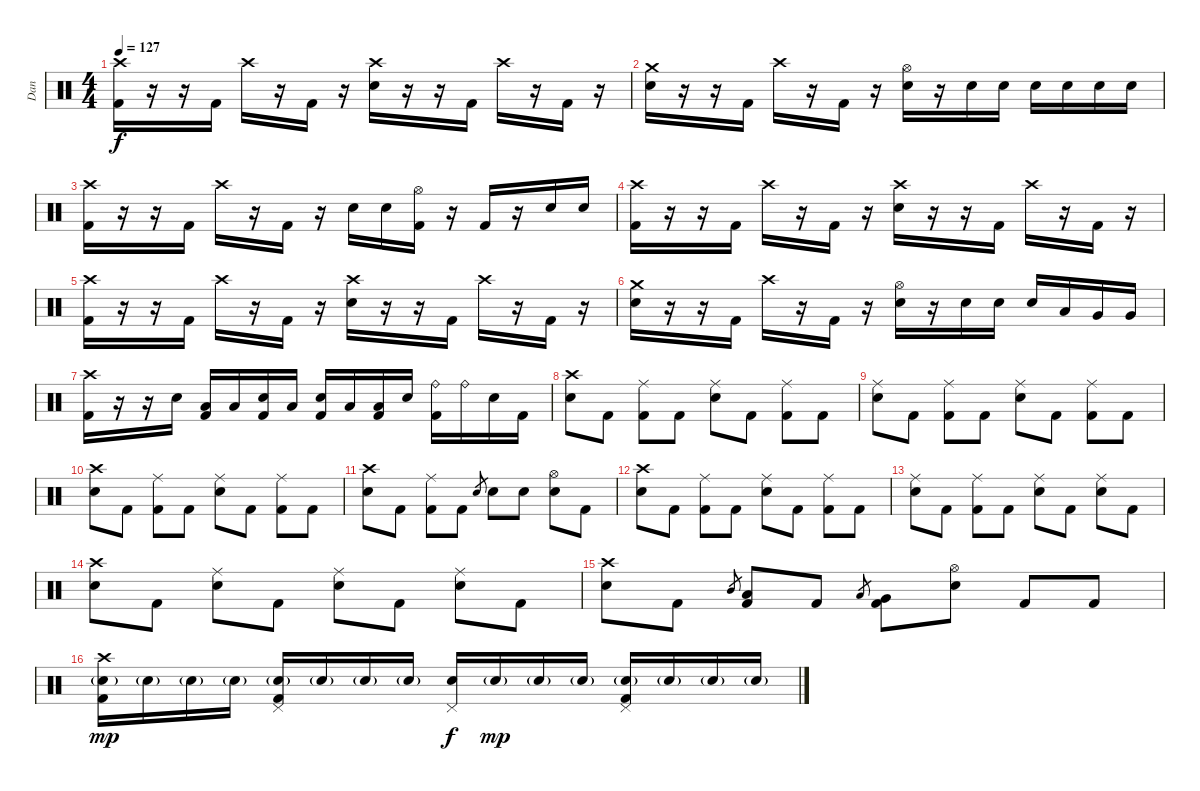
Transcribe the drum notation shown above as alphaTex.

\track ("Dan" "Dan") {instrument percussion}
\staff {score}
\articulation defaults
\ts (4 4)
\tempo 127
\clef neutral
\ks c
("Crash high (hit)" "Kick (hit) 2").16{dy f} r.16 r.16 "Kick (hit) 2".16 "Crash high (hit)".16 r.16 "Kick (hit) 2".16 r.16 ("Crash high (hit)" "Electric Snare (hit)").16 r.16 r.16 "Kick (hit) 2".16 "Crash high (hit)".16 r.16 "Kick (hit) 2".16 r.16 |
("Crash medium (hit)" "Electric Snare (hit)").16 r.16 r.16 "Kick (hit) 2".16 "Crash high (hit)".16 r.16 "Kick (hit) 2".16 r.16 ("Hi-Hat (open)" "Electric Snare (hit)").16 r.16 "Electric Snare (hit)".16 "Electric Snare (hit)".16 "Electric Snare (hit)".16 "Electric Snare (hit)".16 "Electric Snare (hit)".16 "Electric Snare (hit)".16 |
("Crash high (hit)" "Kick (hit) 2").16 r.16 r.16 "Kick (hit) 2".16 "Crash high (hit)".16 r.16 "Kick (hit) 2".16 r.16 "Electric Snare (hit)".16 "Electric Snare (hit)".16 ("Hi-Hat (open)" "Kick (hit) 2").16 r.16 "Kick (hit) 2".16 r.16 "Electric Snare (hit)".16 "Electric Snare (hit)".16 |
("Crash high (hit)" "Kick (hit) 2").16 r.16 r.16 "Kick (hit) 2".16 "Crash high (hit)".16 r.16 "Kick (hit) 2".16 r.16 ("Crash high (hit)" "Electric Snare (hit)").16 r.16 r.16 "Kick (hit) 2".16 "Crash high (hit)".16 r.16 "Kick (hit) 2".16 r.16 |
("Crash high (hit)" "Kick (hit) 2").16 r.16 r.16 "Kick (hit) 2".16 "Crash high (hit)".16 r.16 "Kick (hit) 2".16 r.16 ("Crash high (hit)" "Electric Snare (hit)").16 r.16 r.16 "Kick (hit) 2".16 "Crash high (hit)".16 r.16 "Kick (hit) 2".16 r.16 |
("Crash medium (hit)" "Electric Snare (hit)").16 r.16 r.16 "Kick (hit) 2".16 "Crash high (hit)".16 r.16 "Kick (hit) 2".16 r.16 ("Hi-Hat (open)" "Electric Snare (hit)").16 r.16 "Electric Snare (hit)".16 "Electric Snare (hit)".16 "Electric Snare (hit)".16 "Low Tom (hit)".16 "Very Low Tom (hit)".16 "Very Low Tom (hit)".16 |
("Crash high (hit)" "Kick (hit) 2").16 r.16 r.16 "Electric Snare (hit)".16 ("Low Tom (hit)" "Kick (hit) 2").16 "Low Tom (hit)".16 ("Electric Snare (hit)" "Kick (hit) 2").16 "Low Tom (hit)".16 ("Electric Snare (hit)" "Kick (hit) 2").16 "Low Tom (hit)".16 ("Low Tom (hit)" "Kick (hit) 2").16 "Electric Snare (hit)".16 ("Ride (bell)" "Kick (hit) 2").16 "Ride (bell)".16 "Electric Snare (hit)".16 "Kick (hit) 2".16 |
("Crash high (hit)" "Electric Snare (hit)").8 "Kick (hit) 2".8 ("Ride (middle)" "Kick (hit) 2").8 "Kick (hit) 2".8 ("Ride (middle)" "Electric Snare (hit)").8 "Kick (hit) 2".8 ("Ride (middle)" "Kick (hit) 2").8 "Kick (hit) 2".8 |
("Ride (middle)" "Electric Snare (hit)").8 "Kick (hit) 2".8 ("Ride (middle)" "Kick (hit) 2").8 "Kick (hit) 2".8 ("Ride (middle)" "Electric Snare (hit)").8 "Kick (hit) 2".8 ("Ride (middle)" "Kick (hit) 2").8 "Kick (hit) 2".8 |
("Crash high (hit)" "Electric Snare (hit)").8 "Kick (hit) 2".8 ("Ride (middle)" "Kick (hit) 2").8 "Kick (hit) 2".8 ("Ride (middle)" "Electric Snare (hit)").8 "Kick (hit) 2".8 ("Ride (middle)" "Kick (hit) 2").8 "Kick (hit) 2".8 |
("Crash high (hit)" "Electric Snare (hit)").8 "Kick (hit) 2".8 ("Ride (middle)" "Kick (hit) 2").8 "Kick (hit) 2".8 "Electric Snare (hit)".8{gr} "Electric Snare (hit)".8 "Electric Snare (hit)".8 ("Hi-Hat (open)" "Electric Snare (hit)").8 "Kick (hit) 2".8 |
("Crash high (hit)" "Electric Snare (hit)").8 "Kick (hit) 2".8 ("Ride (middle)" "Kick (hit) 2").8 "Kick (hit) 2".8 ("Ride (middle)" "Electric Snare (hit)").8 "Kick (hit) 2".8 ("Ride (middle)" "Kick (hit) 2").8 "Kick (hit) 2".8 |
("Ride (middle)" "Electric Snare (hit)").8 "Kick (hit) 2".8 ("Ride (middle)" "Kick (hit) 2").8 "Kick (hit) 2".8 ("Ride (middle)" "Electric Snare (hit)").8 "Kick (hit) 2".8 ("Ride (middle)" "Electric Snare (hit)").8 "Kick (hit) 2".8 |
("Crash high (hit)" "Electric Snare (hit)").8 "Kick (hit) 2".8 ("Ride (middle)" "Electric Snare (hit)").8 "Kick (hit) 2".8 ("Ride (middle)" "Electric Snare (hit)").8 "Kick (hit) 2".8 ("Ride (middle)" "Electric Snare (hit)").8 "Kick (hit) 2".8 |
("Crash high (hit)" "Electric Snare (hit)").8 "Kick (hit) 2".8 "Mid Tom (hit)".8{gr} ("Low Tom (hit)" "Kick (hit) 2").8 "Kick (hit) 2".8 "Low Tom (hit)".8{gr} ("Very Low Tom (hit)" "Kick (hit) 2").8 ("Hi-Hat (open)" "Electric Snare (hit)").8 "Kick (hit) 2".8 "Kick (hit) 2".8 |
("Crash high (hit)" "Electric Snare (hit)"{g} "Kick (hit) 2").16{dy mp} "Electric Snare (hit)"{g}.16 "Electric Snare (hit)"{g}.16 "Electric Snare (hit)"{g}.16 ("Pedal Hi-Hat (hit)" "Electric Snare (hit)"{g} "Kick (hit) 2").16 "Electric Snare (hit)"{g}.16 "Electric Snare (hit)"{g}.16 "Electric Snare (hit)"{g}.16 ("Pedal Hi-Hat (hit)" "Electric Snare (hit)").16{dy f} "Electric Snare (hit)"{g}.16{dy mp} "Electric Snare (hit)"{g}.16 "Electric Snare (hit)"{g}.16 ("Pedal Hi-Hat (hit)" "Electric Snare (hit)"{g} "Kick (hit) 2").16 "Electric Snare (hit)"{g}.16 "Electric Snare (hit)"{g}.16 "Electric Snare (hit)"{g}.16
